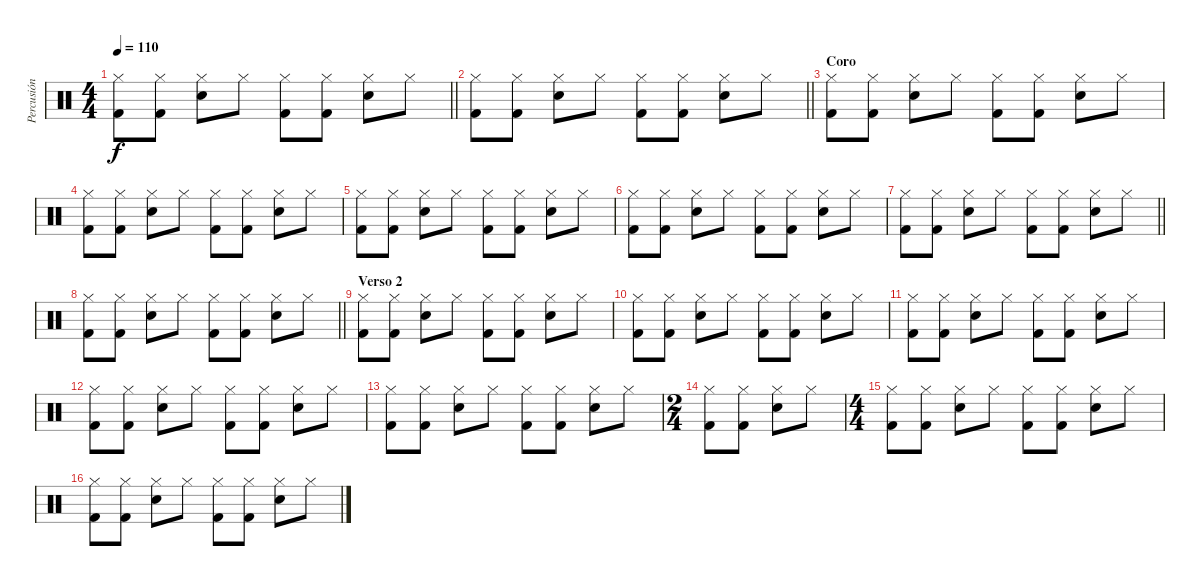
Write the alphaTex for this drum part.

\track ("Percusión" "Percusión") {instrument percussion}
\staff {score}
\articulation defaults
\ts (4 4)
\tempo 110
\clef neutral
\barLineRight lightlight
\ks c
("Hi-Hat (closed)" "Kick (hit) 2").8{dy f} ("Hi-Hat (closed)" "Kick (hit) 2").8 ("Hi-Hat (closed)" "Snare (hit) 2").8 "Hi-Hat (closed)".8 ("Hi-Hat (closed)" "Kick (hit) 2").8 ("Hi-Hat (closed)" "Kick (hit) 2").8 ("Hi-Hat (closed)" "Snare (hit) 2").8 "Hi-Hat (closed)".8 |
\section ("" "")
\barLineRight lightlight
("Hi-Hat (closed)" "Kick (hit) 2").8 ("Hi-Hat (closed)" "Kick (hit) 2").8 ("Hi-Hat (closed)" "Snare (hit) 2").8 "Hi-Hat (closed)".8 ("Hi-Hat (closed)" "Kick (hit) 2").8 ("Hi-Hat (closed)" "Kick (hit) 2").8 ("Hi-Hat (closed)" "Snare (hit) 2").8 "Hi-Hat (closed)".8 |
\section ("" "Coro")
("Hi-Hat (closed)" "Kick (hit) 2").8 ("Hi-Hat (closed)" "Kick (hit) 2").8 ("Hi-Hat (closed)" "Snare (hit) 2").8 "Hi-Hat (closed)".8 ("Hi-Hat (closed)" "Kick (hit) 2").8 ("Hi-Hat (closed)" "Kick (hit) 2").8 ("Hi-Hat (closed)" "Snare (hit) 2").8 "Hi-Hat (closed)".8 |
("Hi-Hat (closed)" "Kick (hit) 2").8 ("Hi-Hat (closed)" "Kick (hit) 2").8 ("Hi-Hat (closed)" "Snare (hit) 2").8 "Hi-Hat (closed)".8 ("Hi-Hat (closed)" "Kick (hit) 2").8 ("Hi-Hat (closed)" "Kick (hit) 2").8 ("Hi-Hat (closed)" "Snare (hit) 2").8 "Hi-Hat (closed)".8 |
("Hi-Hat (closed)" "Kick (hit) 2").8 ("Hi-Hat (closed)" "Kick (hit) 2").8 ("Hi-Hat (closed)" "Snare (hit) 2").8 "Hi-Hat (closed)".8 ("Hi-Hat (closed)" "Kick (hit) 2").8 ("Hi-Hat (closed)" "Kick (hit) 2").8 ("Hi-Hat (closed)" "Snare (hit) 2").8 "Hi-Hat (closed)".8 |
("Hi-Hat (closed)" "Kick (hit) 2").8 ("Hi-Hat (closed)" "Kick (hit) 2").8 ("Hi-Hat (closed)" "Snare (hit) 2").8 "Hi-Hat (closed)".8 ("Hi-Hat (closed)" "Kick (hit) 2").8 ("Hi-Hat (closed)" "Kick (hit) 2").8 ("Hi-Hat (closed)" "Snare (hit) 2").8 "Hi-Hat (closed)".8 |
\barLineRight lightlight
("Hi-Hat (closed)" "Kick (hit) 2").8 ("Hi-Hat (closed)" "Kick (hit) 2").8 ("Hi-Hat (closed)" "Snare (hit) 2").8 "Hi-Hat (closed)".8 ("Hi-Hat (closed)" "Kick (hit) 2").8 ("Hi-Hat (closed)" "Kick (hit) 2").8 ("Hi-Hat (closed)" "Snare (hit) 2").8 "Hi-Hat (closed)".8 |
\section ("" "")
\barLineRight lightlight
("Hi-Hat (closed)" "Kick (hit) 2").8 ("Hi-Hat (closed)" "Kick (hit) 2").8 ("Hi-Hat (closed)" "Snare (hit) 2").8 "Hi-Hat (closed)".8 ("Hi-Hat (closed)" "Kick (hit) 2").8 ("Hi-Hat (closed)" "Kick (hit) 2").8 ("Hi-Hat (closed)" "Snare (hit) 2").8 "Hi-Hat (closed)".8 |
\section ("" "Verso 2")
("Hi-Hat (closed)" "Kick (hit) 2").8 ("Hi-Hat (closed)" "Kick (hit) 2").8 ("Hi-Hat (closed)" "Snare (hit) 2").8 "Hi-Hat (closed)".8 ("Hi-Hat (closed)" "Kick (hit) 2").8 ("Hi-Hat (closed)" "Kick (hit) 2").8 ("Hi-Hat (closed)" "Snare (hit) 2").8 "Hi-Hat (closed)".8 |
("Hi-Hat (closed)" "Kick (hit) 2").8 ("Hi-Hat (closed)" "Kick (hit) 2").8 ("Hi-Hat (closed)" "Snare (hit) 2").8 "Hi-Hat (closed)".8 ("Hi-Hat (closed)" "Kick (hit) 2").8 ("Hi-Hat (closed)" "Kick (hit) 2").8 ("Hi-Hat (closed)" "Snare (hit) 2").8 "Hi-Hat (closed)".8 |
("Hi-Hat (closed)" "Kick (hit) 2").8 ("Hi-Hat (closed)" "Kick (hit) 2").8 ("Hi-Hat (closed)" "Snare (hit) 2").8 "Hi-Hat (closed)".8 ("Hi-Hat (closed)" "Kick (hit) 2").8 ("Hi-Hat (closed)" "Kick (hit) 2").8 ("Hi-Hat (closed)" "Snare (hit) 2").8 "Hi-Hat (closed)".8 |
("Hi-Hat (closed)" "Kick (hit) 2").8 ("Hi-Hat (closed)" "Kick (hit) 2").8 ("Hi-Hat (closed)" "Snare (hit) 2").8 "Hi-Hat (closed)".8 ("Hi-Hat (closed)" "Kick (hit) 2").8 ("Hi-Hat (closed)" "Kick (hit) 2").8 ("Hi-Hat (closed)" "Snare (hit) 2").8 "Hi-Hat (closed)".8 |
("Hi-Hat (closed)" "Kick (hit) 2").8 ("Hi-Hat (closed)" "Kick (hit) 2").8 ("Hi-Hat (closed)" "Snare (hit) 2").8 "Hi-Hat (closed)".8 ("Hi-Hat (closed)" "Kick (hit) 2").8 ("Hi-Hat (closed)" "Kick (hit) 2").8 ("Hi-Hat (closed)" "Snare (hit) 2").8 "Hi-Hat (closed)".8 |
\ts (2 4)
("Hi-Hat (closed)" "Kick (hit) 2").8 ("Hi-Hat (closed)" "Kick (hit) 2").8 ("Hi-Hat (closed)" "Snare (hit) 2").8 "Hi-Hat (closed)".8 |
\ts (4 4)
("Hi-Hat (closed)" "Kick (hit) 2").8 ("Hi-Hat (closed)" "Kick (hit) 2").8 ("Hi-Hat (closed)" "Snare (hit) 2").8 "Hi-Hat (closed)".8 ("Hi-Hat (closed)" "Kick (hit) 2").8 ("Hi-Hat (closed)" "Kick (hit) 2").8 ("Hi-Hat (closed)" "Snare (hit) 2").8 "Hi-Hat (closed)".8 |
("Hi-Hat (closed)" "Kick (hit) 2").8 ("Hi-Hat (closed)" "Kick (hit) 2").8 ("Hi-Hat (closed)" "Snare (hit) 2").8 "Hi-Hat (closed)".8 ("Hi-Hat (closed)" "Kick (hit) 2").8 ("Hi-Hat (closed)" "Kick (hit) 2").8 ("Hi-Hat (closed)" "Snare (hit) 2").8 "Hi-Hat (closed)".8
